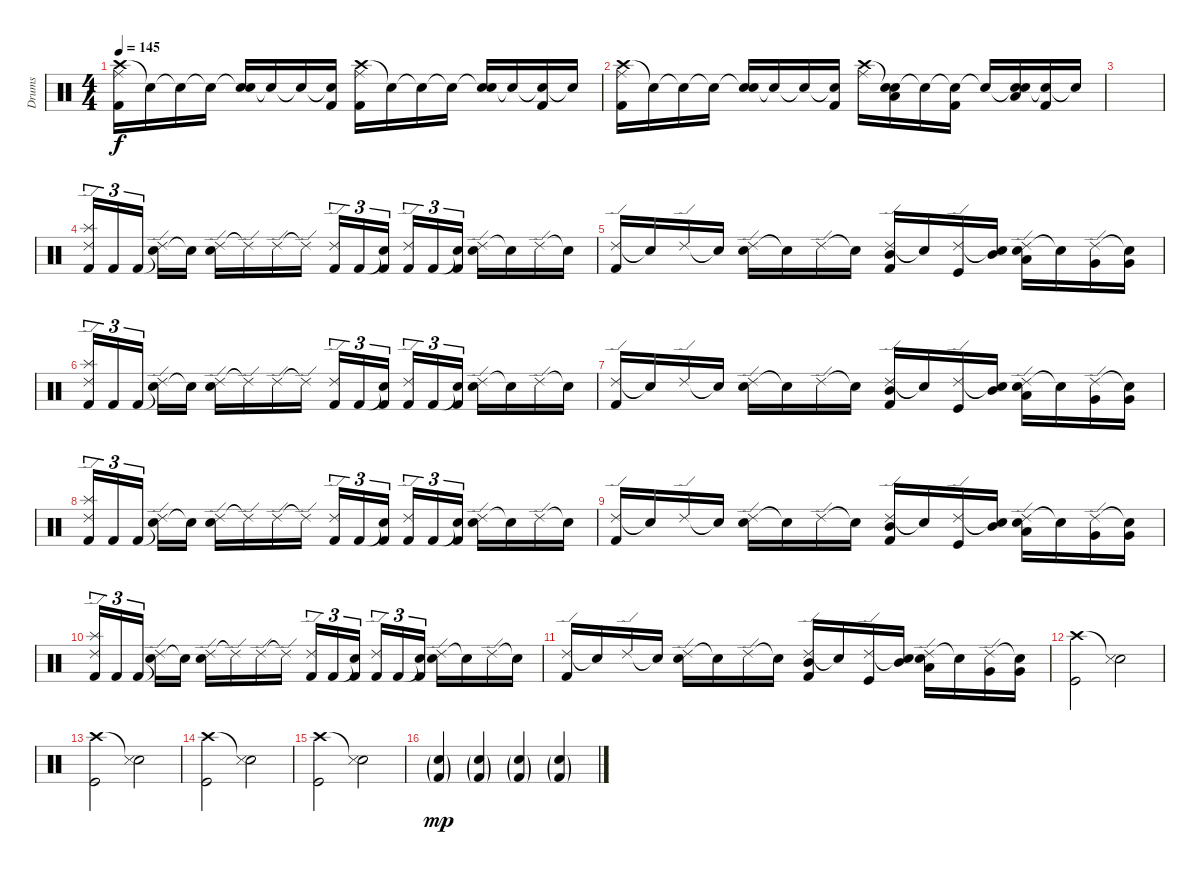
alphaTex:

\track ("Drums" "Drums") {instrument percussion}
\staff {score}
\articulation defaults
\ts (4 4)
\tempo 145
\clef neutral
\ks c
("Crash high (hit)" "Ride (middle)" "Kick (hit) 2").16{dy f} "Snare (hit)"{t}.16 "Snare (hit)"{t}.16 "Snare (hit)"{t}.16 ("Snare (hit)"{t} "Electric Snare (hit)").16 "Snare (hit)"{t}.16 "Snare (hit)"{t}.16 ("Snare (hit)"{t} "Kick (hit) 2").16 ("Crash high (hit)" "Ride (middle)" "Kick (hit) 2").16 "Snare (hit)"{t}.16 "Snare (hit)"{t}.16 "Snare (hit)"{t}.16 ("Snare (hit)"{t} "Electric Snare (hit)").16 "Snare (hit)"{t}.16 ("Snare (hit)"{t} "Kick (hit) 2").16 "Snare (hit)"{t}.16 |
("Crash high (hit)" "Ride (middle)" "Kick (hit) 2").16 "Snare (hit)"{t}.16 "Snare (hit)"{t}.16 "Snare (hit)"{t}.16 ("Snare (hit)"{t} "Electric Snare (hit)").16 "Snare (hit)"{t}.16 "Snare (hit)"{t}.16 ("Snare (hit)"{t} "Kick (hit) 2").16 ("Crash high (hit)" "Ride (middle)").16 ("Snare (hit)"{t} "Low Floor Tom (hit)" "Electric Snare (hit)").16 "Snare (hit)"{t}.16 ("Snare (hit)"{t} "Kick (hit) 2").16 "Snare (hit)"{t}.16 ("Snare (hit)"{t} "Low Floor Tom (hit)" "Electric Snare (hit)").16 ("Snare (hit)"{t} "Kick (hit) 2").16 "Snare (hit)"{t}.16 |
|
("Splash (hit)" "Ride (edge) 2" "Kick (hit) 2").16{tu (3 2)} "Kick (hit) 2".16{tu (3 2)} "Kick (hit) 2".16{tu (3 2)} ("Snare (hit)"{t} "Ride (edge) 2").16 "Snare (hit)"{t}.16 ("Ride (edge) 2" "Electric Snare (hit)").16 "Ride (edge) 2"{t}.16 "Ride (edge) 2".16 "Ride (edge) 2"{t}.16 ("Ride (edge) 2" "Kick (hit) 2").16{tu (3 2)} "Kick (hit) 2".16{tu (3 2)} ("Snare (hit)"{t} "Kick (hit) 2").16{tu (3 2)} ("Ride (edge) 2" "Kick (hit) 2").16{tu (3 2)} "Kick (hit) 2".16{tu (3 2)} ("Snare (hit)"{t} "Kick (hit) 2").16{tu (3 2)} ("Ride (edge) 2" "Electric Snare (hit)").16 "Snare (hit)"{t}.16 "Ride (edge) 2".16 "Snare (hit)"{t}.16 |
("Ride (edge) 2" "Kick (hit) 2").16 "Snare (hit)"{t}.16 "Ride (edge) 2".16 "Snare (hit)"{t}.16 ("Ride (edge) 2" "Electric Snare (hit)").16 "Snare (hit)"{t}.16 "Ride (edge) 2".16 "Snare (hit)"{t}.16 ("Ride (edge) 2" "Mid Tom (hit)" "Kick (hit) 2").16 "Snare (hit)"{t}.16 ("Ride (edge) 2" "Kick (hit)").16 ("Snare (hit)"{t} "Mid Tom (hit)").16 ("Ride (edge) 2" "Low Tom (hit)" "Electric Snare (hit)").16 "Snare (hit)"{t}.16 ("Ride (edge) 2" "Very Low Tom (hit)").16 ("Snare (hit)"{t} "Very Low Tom (hit)").16 |
("Splash (hit)" "Ride (edge) 2" "Kick (hit) 2").16{tu (3 2)} "Kick (hit) 2".16{tu (3 2)} "Kick (hit) 2".16{tu (3 2)} ("Snare (hit)"{t} "Ride (edge) 2").16 "Snare (hit)"{t}.16 ("Ride (edge) 2" "Electric Snare (hit)").16 "Ride (edge) 2"{t}.16 "Ride (edge) 2".16 "Ride (edge) 2"{t}.16 ("Ride (edge) 2" "Kick (hit) 2").16{tu (3 2)} "Kick (hit) 2".16{tu (3 2)} ("Snare (hit)"{t} "Kick (hit) 2").16{tu (3 2)} ("Ride (edge) 2" "Kick (hit) 2").16{tu (3 2)} "Kick (hit) 2".16{tu (3 2)} ("Snare (hit)"{t} "Kick (hit) 2").16{tu (3 2)} ("Ride (edge) 2" "Electric Snare (hit)").16 "Snare (hit)"{t}.16 "Ride (edge) 2".16 "Snare (hit)"{t}.16 |
("Ride (edge) 2" "Kick (hit) 2").16 "Snare (hit)"{t}.16 "Ride (edge) 2".16 "Snare (hit)"{t}.16 ("Ride (edge) 2" "Electric Snare (hit)").16 "Snare (hit)"{t}.16 "Ride (edge) 2".16 "Snare (hit)"{t}.16 ("Ride (edge) 2" "Mid Tom (hit)" "Kick (hit) 2").16 "Snare (hit)"{t}.16 ("Ride (edge) 2" "Kick (hit)").16 ("Snare (hit)"{t} "Mid Tom (hit)").16 ("Ride (edge) 2" "Low Tom (hit)" "Electric Snare (hit)").16 "Snare (hit)"{t}.16 ("Ride (edge) 2" "Very Low Tom (hit)").16 ("Snare (hit)"{t} "Very Low Tom (hit)").16 |
("Splash (hit)" "Ride (edge) 2" "Kick (hit) 2").16{tu (3 2)} "Kick (hit) 2".16{tu (3 2)} "Kick (hit) 2".16{tu (3 2)} ("Snare (hit)"{t} "Ride (edge) 2").16 "Snare (hit)"{t}.16 ("Ride (edge) 2" "Electric Snare (hit)").16 "Ride (edge) 2"{t}.16 "Ride (edge) 2".16 "Ride (edge) 2"{t}.16 ("Ride (edge) 2" "Kick (hit) 2").16{tu (3 2)} "Kick (hit) 2".16{tu (3 2)} ("Snare (hit)"{t} "Kick (hit) 2").16{tu (3 2)} ("Ride (edge) 2" "Kick (hit) 2").16{tu (3 2)} "Kick (hit) 2".16{tu (3 2)} ("Snare (hit)"{t} "Kick (hit) 2").16{tu (3 2)} ("Ride (edge) 2" "Electric Snare (hit)").16 "Snare (hit)"{t}.16 "Ride (edge) 2".16 "Snare (hit)"{t}.16 |
("Ride (edge) 2" "Kick (hit) 2").16 "Snare (hit)"{t}.16 "Ride (edge) 2".16 "Snare (hit)"{t}.16 ("Ride (edge) 2" "Electric Snare (hit)").16 "Snare (hit)"{t}.16 "Ride (edge) 2".16 "Snare (hit)"{t}.16 ("Ride (edge) 2" "Mid Tom (hit)" "Kick (hit) 2").16 "Snare (hit)"{t}.16 ("Ride (edge) 2" "Kick (hit)").16 ("Snare (hit)"{t} "Mid Tom (hit)").16 ("Ride (edge) 2" "Low Tom (hit)" "Electric Snare (hit)").16 "Snare (hit)"{t}.16 ("Ride (edge) 2" "Very Low Tom (hit)").16 ("Snare (hit)"{t} "Very Low Tom (hit)").16 |
("Splash (hit)" "Ride (edge) 2" "Kick (hit) 2").16{tu (3 2)} "Kick (hit) 2".16{tu (3 2)} "Kick (hit) 2".16{tu (3 2)} ("Snare (hit)"{t} "Ride (edge) 2").16 "Snare (hit)"{t}.16 ("Ride (edge) 2" "Electric Snare (hit)").16 "Ride (edge) 2"{t}.16 "Ride (edge) 2".16 "Ride (edge) 2"{t}.16 ("Ride (edge) 2" "Kick (hit) 2").16{tu (3 2)} "Kick (hit) 2".16{tu (3 2)} ("Snare (hit)"{t} "Kick (hit) 2").16{tu (3 2)} ("Ride (edge) 2" "Kick (hit) 2").16{tu (3 2)} "Kick (hit) 2".16{tu (3 2)} ("Snare (hit)"{t} "Kick (hit) 2").16{tu (3 2)} ("Ride (edge) 2" "Electric Snare (hit)").16 "Snare (hit)"{t}.16 "Ride (edge) 2".16 "Snare (hit)"{t}.16 |
("Ride (edge) 2" "Kick (hit) 2").16 "Snare (hit)"{t}.16 "Ride (edge) 2".16 "Snare (hit)"{t}.16 ("Ride (edge) 2" "Electric Snare (hit)").16 "Snare (hit)"{t}.16 "Ride (edge) 2".16 "Snare (hit)"{t}.16 ("Ride (edge) 2" "Mid Tom (hit)" "Kick (hit) 2").16 "Snare (hit)"{t}.16 ("Ride (edge) 2" "Kick (hit)").16 ("Snare (hit)"{t} "Mid Tom (hit)").16 ("Ride (edge) 2" "Low Tom (hit)" "Electric Snare (hit)").16 "Snare (hit)"{t}.16 ("Ride (edge) 2" "Very Low Tom (hit)").16 ("Snare (hit)"{t} "Very Low Tom (hit)").16 |
("Crash high (hit)" "Kick (hit)").2 ("Snare (hit)"{t} "Snare (side stick) 3").2 |
("Crash high (hit)" "Kick (hit)").2 ("Snare (hit)"{t} "Snare (side stick) 3").2 |
("Crash high (hit)" "Kick (hit)").2 ("Snare (hit)"{t} "Snare (side stick) 3").2 |
("Crash high (hit)" "Kick (hit)").2 ("Snare (hit)"{t} "Snare (side stick) 3").2 |
("Electric Snare (hit)"{g} "Kick (hit) 2"{g}).4{dy mp} ("Electric Snare (hit)"{g} "Kick (hit) 2"{g}).4 ("Electric Snare (hit)"{g} "Kick (hit) 2"{g}).4 ("Electric Snare (hit)"{g} "Kick (hit) 2"{g}).4
